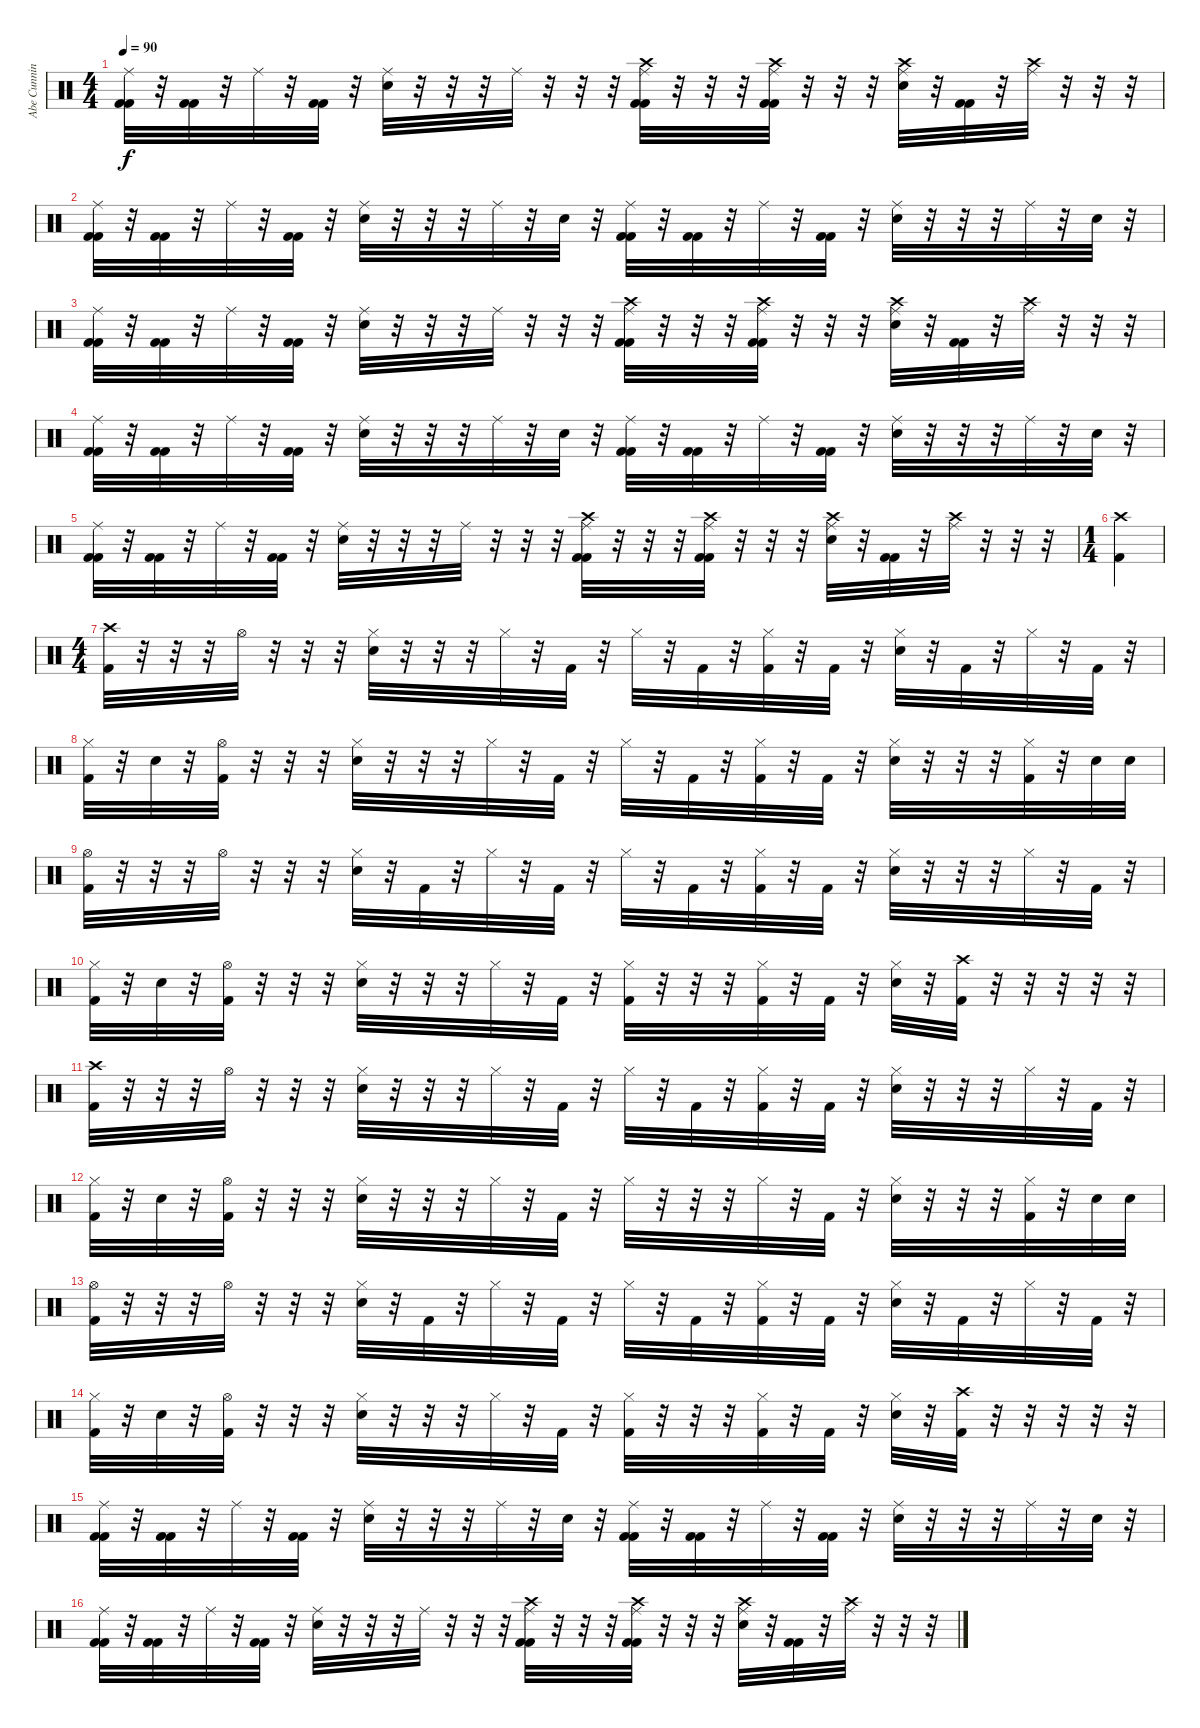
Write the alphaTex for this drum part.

\track ("Abe Cunningham - Drums" "Abe Cunnin") {instrument percussion}
\staff {score}
\articulation defaults
\ts (4 4)
\tempo 90
\clef neutral
\ks c
("Ride (middle)" "Kick (hit) 2" "Kick (hit) 2").32{dy f} r.32 ("Kick (hit) 2" "Kick (hit) 2").32 r.32 "Ride (middle)".32 r.32 ("Kick (hit) 2" "Kick (hit) 2").32 r.32 ("Ride (middle)" "Electric Snare (hit)").32 r.32 r.32 r.32 "Ride (middle)".32 r.32 r.32 r.32 ("Crash high (hit)" "Ride (middle)" "Kick (hit) 2" "Kick (hit) 2").32 r.32 r.32 r.32 ("Crash high (hit)" "Ride (middle)" "Kick (hit) 2" "Kick (hit) 2").32 r.32 r.32 r.32 ("Crash high (hit)" "Ride (middle)" "Electric Snare (hit)").32 r.32 ("Kick (hit) 2" "Kick (hit) 2").32 r.32 ("Crash high (hit)" "Ride (middle)").32 r.32 r.32 r.32 |
("Ride (middle)" "Kick (hit) 2" "Kick (hit) 2").32 r.32 ("Kick (hit) 2" "Kick (hit) 2").32 r.32 "Ride (middle)".32 r.32 ("Kick (hit) 2" "Kick (hit) 2").32 r.32 ("Ride (middle)" "Electric Snare (hit)").32 r.32 r.32 r.32 "Ride (middle)".32 r.32 "Electric Snare (hit)".32 r.32 ("Ride (middle)" "Kick (hit) 2" "Kick (hit) 2").32 r.32 ("Kick (hit) 2" "Kick (hit) 2").32 r.32 "Ride (middle)".32 r.32 ("Kick (hit) 2" "Kick (hit) 2").32 r.32 ("Ride (middle)" "Electric Snare (hit)").32 r.32 r.32 r.32 "Ride (middle)".32 r.32 "Electric Snare (hit)".32 r.32 |
("Ride (middle)" "Kick (hit) 2" "Kick (hit) 2").32 r.32 ("Kick (hit) 2" "Kick (hit) 2").32 r.32 "Ride (middle)".32 r.32 ("Kick (hit) 2" "Kick (hit) 2").32 r.32 ("Ride (middle)" "Electric Snare (hit)").32 r.32 r.32 r.32 "Ride (middle)".32 r.32 r.32 r.32 ("Crash high (hit)" "Ride (middle)" "Kick (hit) 2" "Kick (hit) 2").32 r.32 r.32 r.32 ("Crash high (hit)" "Ride (middle)" "Kick (hit) 2" "Kick (hit) 2").32 r.32 r.32 r.32 ("Crash high (hit)" "Ride (middle)" "Electric Snare (hit)").32 r.32 ("Kick (hit) 2" "Kick (hit) 2").32 r.32 ("Crash high (hit)" "Ride (middle)").32 r.32 r.32 r.32 |
("Ride (middle)" "Kick (hit) 2" "Kick (hit) 2").32 r.32 ("Kick (hit) 2" "Kick (hit) 2").32 r.32 "Ride (middle)".32 r.32 ("Kick (hit) 2" "Kick (hit) 2").32 r.32 ("Ride (middle)" "Electric Snare (hit)").32 r.32 r.32 r.32 "Ride (middle)".32 r.32 "Electric Snare (hit)".32 r.32 ("Ride (middle)" "Kick (hit) 2" "Kick (hit) 2").32 r.32 ("Kick (hit) 2" "Kick (hit) 2").32 r.32 "Ride (middle)".32 r.32 ("Kick (hit) 2" "Kick (hit) 2").32 r.32 ("Ride (middle)" "Electric Snare (hit)").32 r.32 r.32 r.32 "Ride (middle)".32 r.32 "Electric Snare (hit)".32 r.32 |
("Ride (middle)" "Kick (hit) 2" "Kick (hit) 2").32 r.32 ("Kick (hit) 2" "Kick (hit) 2").32 r.32 "Ride (middle)".32 r.32 ("Kick (hit) 2" "Kick (hit) 2").32 r.32 ("Ride (middle)" "Electric Snare (hit)").32 r.32 r.32 r.32 "Ride (middle)".32 r.32 r.32 r.32 ("Crash high (hit)" "Ride (middle)" "Kick (hit) 2" "Kick (hit) 2").32 r.32 r.32 r.32 ("Crash high (hit)" "Ride (middle)" "Kick (hit) 2" "Kick (hit) 2").32 r.32 r.32 r.32 ("Crash high (hit)" "Ride (middle)" "Electric Snare (hit)").32 r.32 ("Kick (hit) 2" "Kick (hit) 2").32 r.32 ("Crash high (hit)" "Ride (middle)").32 r.32 r.32 r.32 |
\ts (1 4)
("Crash high (hit)" "Kick (hit) 2").4 |
\ts (4 4)
("Crash high (hit)" "Kick (hit) 2").32 r.32 r.32 r.32 "Hi-Hat (open)".32 r.32 r.32 r.32 ("Hi-Hat (closed)" "Electric Snare (hit)").32 r.32 r.32 r.32 "Hi-Hat (closed)".32 r.32 "Kick (hit) 2".32 r.32 "Hi-Hat (closed)".32 r.32 "Kick (hit) 2".32 r.32 ("Hi-Hat (closed)" "Kick (hit) 2").32 r.32 "Kick (hit) 2".32 r.32 ("Hi-Hat (closed)" "Electric Snare (hit)").32 r.32 "Kick (hit) 2".32 r.32 "Hi-Hat (closed)".32 r.32 "Kick (hit) 2".32 r.32 |
("Hi-Hat (closed)" "Kick (hit) 2").32 r.32 "Electric Snare (hit)".32 r.32 ("Hi-Hat (open)" "Kick (hit) 2").32 r.32 r.32 r.32 ("Hi-Hat (closed)" "Electric Snare (hit)").32 r.32 r.32 r.32 "Hi-Hat (closed)".32 r.32 "Kick (hit) 2".32 r.32 "Hi-Hat (closed)".32 r.32 "Kick (hit) 2".32 r.32 ("Hi-Hat (closed)" "Kick (hit) 2").32 r.32 "Kick (hit) 2".32 r.32 ("Hi-Hat (closed)" "Electric Snare (hit)").32 r.32 r.32 r.32 ("Hi-Hat (closed)" "Kick (hit) 2").32 r.32 "Electric Snare (hit)".32 "Electric Snare (hit)".32 |
("Hi-Hat (open)" "Kick (hit) 2").32 r.32 r.32 r.32 "Hi-Hat (open)".32 r.32 r.32 r.32 ("Hi-Hat (closed)" "Electric Snare (hit)").32 r.32 "Kick (hit) 2".32 r.32 "Hi-Hat (closed)".32 r.32 "Kick (hit) 2".32 r.32 "Hi-Hat (closed)".32 r.32 "Kick (hit) 2".32 r.32 ("Hi-Hat (closed)" "Kick (hit) 2").32 r.32 "Kick (hit) 2".32 r.32 ("Hi-Hat (closed)" "Electric Snare (hit)").32 r.32 r.32 r.32 "Hi-Hat (closed)".32 r.32 "Kick (hit) 2".32 r.32 |
("Hi-Hat (closed)" "Kick (hit) 2").32 r.32 "Electric Snare (hit)".32 r.32 ("Hi-Hat (open)" "Kick (hit) 2").32 r.32 r.32 r.32 ("Hi-Hat (closed)" "Electric Snare (hit)").32 r.32 r.32 r.32 "Hi-Hat (closed)".32 r.32 "Kick (hit) 2".32 r.32 ("Hi-Hat (closed)" "Kick (hit) 2").32 r.32 r.32 r.32 ("Hi-Hat (closed)" "Kick (hit) 2").32 r.32 "Kick (hit) 2".32 r.32 ("Hi-Hat (closed)" "Electric Snare (hit)").32 r.32 ("Crash high (hit)" "Kick (hit) 2").32 r.32 r.32 r.32 r.32 r.32 |
("Crash high (hit)" "Kick (hit) 2").32 r.32 r.32 r.32 "Hi-Hat (open)".32 r.32 r.32 r.32 ("Hi-Hat (closed)" "Electric Snare (hit)").32 r.32 r.32 r.32 "Hi-Hat (closed)".32 r.32 "Kick (hit) 2".32 r.32 "Hi-Hat (closed)".32 r.32 "Kick (hit) 2".32 r.32 ("Hi-Hat (closed)" "Kick (hit) 2").32 r.32 "Kick (hit) 2".32 r.32 ("Hi-Hat (closed)" "Electric Snare (hit)").32 r.32 r.32 r.32 "Hi-Hat (closed)".32 r.32 "Kick (hit) 2".32 r.32 |
("Hi-Hat (closed)" "Kick (hit) 2").32 r.32 "Electric Snare (hit)".32 r.32 ("Hi-Hat (open)" "Kick (hit) 2").32 r.32 r.32 r.32 ("Hi-Hat (closed)" "Electric Snare (hit)").32 r.32 r.32 r.32 "Hi-Hat (closed)".32 r.32 "Kick (hit) 2".32 r.32 "Hi-Hat (closed)".32 r.32 r.32 r.32 "Hi-Hat (closed)".32 r.32 "Kick (hit) 2".32 r.32 ("Hi-Hat (closed)" "Electric Snare (hit)").32 r.32 r.32 r.32 ("Hi-Hat (closed)" "Kick (hit) 2").32 r.32 "Electric Snare (hit)".32 "Electric Snare (hit)".32 |
("Hi-Hat (open)" "Kick (hit) 2").32 r.32 r.32 r.32 "Hi-Hat (open)".32 r.32 r.32 r.32 ("Hi-Hat (closed)" "Electric Snare (hit)").32 r.32 "Kick (hit) 2".32 r.32 "Hi-Hat (closed)".32 r.32 "Kick (hit) 2".32 r.32 "Hi-Hat (closed)".32 r.32 "Kick (hit) 2".32 r.32 ("Hi-Hat (closed)" "Kick (hit) 2").32 r.32 "Kick (hit) 2".32 r.32 ("Hi-Hat (closed)" "Electric Snare (hit)").32 r.32 "Kick (hit) 2".32 r.32 "Hi-Hat (closed)".32 r.32 "Kick (hit) 2".32 r.32 |
("Hi-Hat (closed)" "Kick (hit) 2").32 r.32 "Electric Snare (hit)".32 r.32 ("Hi-Hat (open)" "Kick (hit) 2").32 r.32 r.32 r.32 ("Hi-Hat (closed)" "Electric Snare (hit)").32 r.32 r.32 r.32 "Hi-Hat (closed)".32 r.32 "Kick (hit) 2".32 r.32 ("Hi-Hat (closed)" "Kick (hit) 2").32 r.32 r.32 r.32 ("Hi-Hat (closed)" "Kick (hit) 2").32 r.32 "Kick (hit) 2".32 r.32 ("Hi-Hat (closed)" "Electric Snare (hit)").32 r.32 ("Crash high (hit)" "Kick (hit) 2").32 r.32 r.32 r.32 r.32 r.32 |
("Ride (middle)" "Kick (hit) 2" "Kick (hit) 2").32 r.32 ("Kick (hit) 2" "Kick (hit) 2").32 r.32 "Ride (middle)".32 r.32 ("Kick (hit) 2" "Kick (hit) 2").32 r.32 ("Ride (middle)" "Electric Snare (hit)").32 r.32 r.32 r.32 "Ride (middle)".32 r.32 "Electric Snare (hit)".32 r.32 ("Ride (middle)" "Kick (hit) 2" "Kick (hit) 2").32 r.32 ("Kick (hit) 2" "Kick (hit) 2").32 r.32 "Ride (middle)".32 r.32 ("Kick (hit) 2" "Kick (hit) 2").32 r.32 ("Ride (middle)" "Electric Snare (hit)").32 r.32 r.32 r.32 "Ride (middle)".32 r.32 "Electric Snare (hit)".32 r.32 |
("Ride (middle)" "Kick (hit) 2" "Kick (hit) 2").32 r.32 ("Kick (hit) 2" "Kick (hit) 2").32 r.32 "Ride (middle)".32 r.32 ("Kick (hit) 2" "Kick (hit) 2").32 r.32 ("Ride (middle)" "Electric Snare (hit)").32 r.32 r.32 r.32 "Ride (middle)".32 r.32 r.32 r.32 ("Crash high (hit)" "Ride (middle)" "Kick (hit) 2" "Kick (hit) 2").32 r.32 r.32 r.32 ("Crash high (hit)" "Ride (middle)" "Kick (hit) 2" "Kick (hit) 2").32 r.32 r.32 r.32 ("Crash high (hit)" "Ride (middle)" "Electric Snare (hit)").32 r.32 ("Kick (hit) 2" "Kick (hit) 2").32 r.32 ("Crash high (hit)" "Ride (middle)").32 r.32 r.32 r.32
